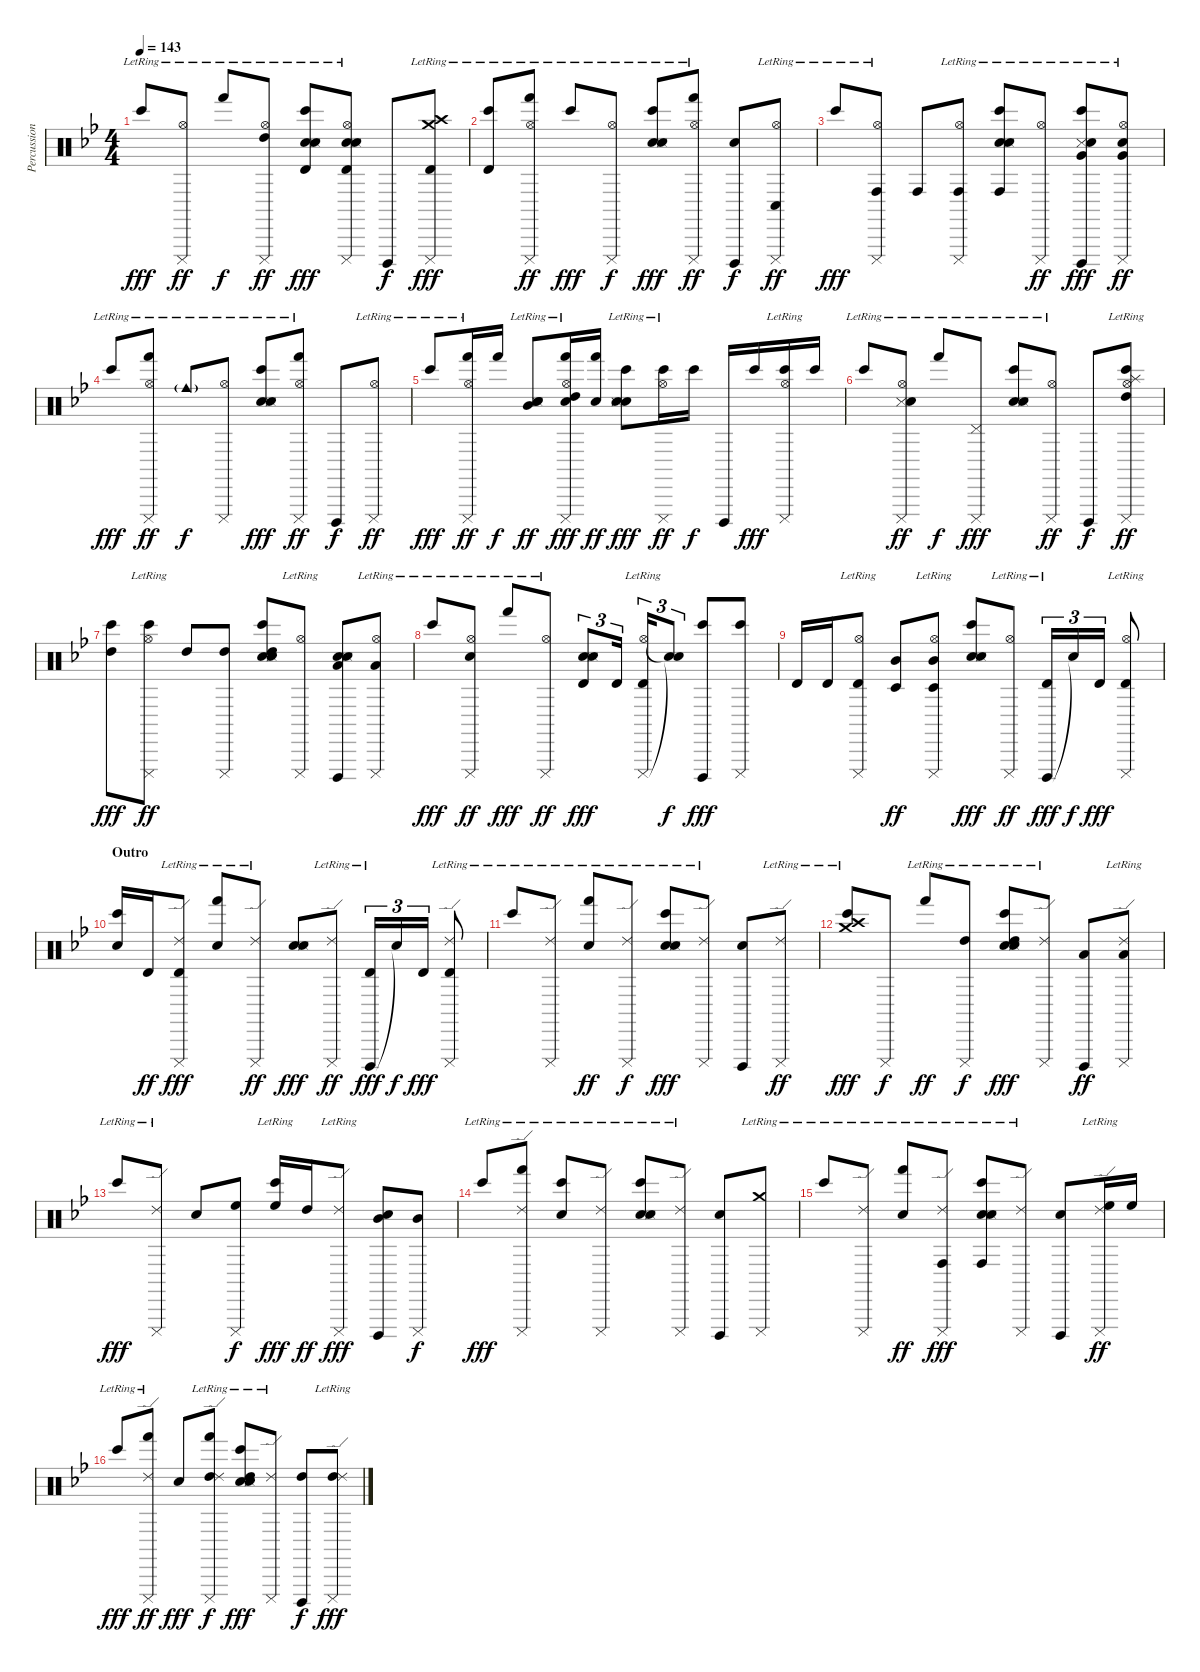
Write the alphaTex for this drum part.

\track ("Percussion" "Percussion") {instrument percussion}
\staff {score}
\articulation defaults
\ts (4 4)
\tempo 143
\clef neutral
\ks gminor "Bongo High (hit)"{lr}.8{dy fff}
("Cuica (mute)" "Hi-Hat (open)"{lr}).8{dy ff} "Hand (hit)"{lr}.8{dy f} ("Cuica (mute)" "High Tom (hit)" "Hi-Hat (open)"{lr}).8{dy ff} ("Snare (hit) 2" "Snare (side stick) 3" "Snare (hit) 2" "Timbale high (hit)" "Bongo High (hit)"{lr}).8{dy fff} ("Cuica (mute)" "Snare (hit) 2" "Snare (side stick) 3" "Hi-Hat (open)"{lr} "Snare (hit) 2" "Timbale high (hit)").8 "Cuica (open)".8{dy f} ("Cuica (mute)" "Crash high (hit)"{lr} "Timbale high (hit)" "Crash medium (hit)"{lr}).8{dy fff} |
("Timbale high (hit)" "Bongo High (hit)"{lr}).8 ("Cuica (mute)" "Hi-Hat (open)"{lr} "Hand (hit)").8{dy ff} "Bongo High (hit)"{lr}.8{dy fff} ("Cuica (mute)" "Hi-Hat (open)"{lr}).8{dy f} ("Snare (hit) 2" "Snare (side stick) 3" "Snare (hit) 2" "Bongo High (hit)"{lr}).8{dy fff} ("Cuica (mute)" "Hi-Hat (open)"{lr} "Hand (hit)").8{dy ff} ("Cuica (open)" "Snare (hit) 2").8{dy f} ("Cuica (mute)" "Conga low (hit)" "Hi-Hat (open)"{lr}).8{dy ff} |
"Bongo High (hit)"{lr}.8{dy fff} ("Cuica (mute)" "Hi-Hat (open)"{lr} "Conga high (hit)").8 "Conga high (hit)".8 ("Cuica (mute)" "Hi-Hat (open)"{lr} "Conga high (hit)").8 ("Snare (hit) 2" "Snare (side stick) 3" "Snare (hit) 2" "Bongo High (hit)"{lr} "Conga high (hit)").8 ("Cuica (mute)" "Hi-Hat (open)"{lr}).8{dy ff} ("Cuica (open)" "Snare (side stick) 3" "Snare (hit) 2" "Bongo High (hit)"{lr} "Very Low Tom (hit)").8{dy fff} ("Cuica (mute)" "Snare (hit) 2" "Hi-Hat (open)"{lr} "Very Low Tom (hit)").8{dy ff} |
"Bongo High (hit)"{lr}.8{dy fff} ("Cuica (mute)" "Hi-Hat (open)"{lr} "Hand (hit)").8{dy ff} "Cowbell medium (hit)"{g lr}.8{dy f} ("Cuica (mute)" "Hi-Hat (open)"{lr}).8 ("Snare (hit) 2" "Snare (side stick) 3" "Snare (hit) 2" "Bongo High (hit)"{lr}).8{dy fff} ("Cuica (mute)" "Hi-Hat (open)"{lr} "Hand (hit)").8{dy ff} "Cuica (open)".8{dy f} ("Cuica (mute)" "Hi-Hat (open)"{lr}).8{dy ff} |
"Bongo High (hit)"{lr}.8{dy fff} ("Cuica (mute)" "Hi-Hat (open)"{lr} "Hand (hit)").16{dy ff} "Hand (hit)".16{dy f} ("Snare (hit) 2" "Snare (side stick) 3" "Snare (hit) 2" "Mid Tom (hit)"{lr}).8{dy ff} ("Cuica (mute)" "Snare (hit) 2" "High Tom (hit)" "Hi-Hat (open)"{lr} "Hand (hit)").16{dy fff} ("Snare (hit) 2" "Hand (hit)").16{dy ff} ("Snare (hit) 2" "Snare (side stick) 3" "Snare (hit) 2" "Bongo High (hit)"{lr}).8{dy fff} ("Cuica (mute)" "Hi-Hat (open)"{lr} "Bongo High (hit)").16{dy ff} "Bongo High (hit)".16{dy f} "Cuica (open)".16 "Bongo High (hit)".16{dy fff} ("Cuica (mute)" "Hi-Hat (open)"{lr} "Bongo High (hit)").16 "Bongo High (hit)".16 |
"Bongo High (hit)"{lr}.8 ("Cuica (mute)" "Snare (side stick) 3" "Snare (hit) 2" "Hi-Hat (open)"{lr}).8{dy ff} "Hand (hit)"{lr}.8{dy f} ("Cuica (mute)" "Pedal Hi-Hat (hit)"{lr}).8{dy fff} ("Snare (hit) 2" "Snare (side stick) 3" "Snare (hit) 2" "Bongo High (hit)"{lr}).8 ("Cuica (mute)" "Hi-Hat (open)"{lr}).8{dy ff} "Cuica (open)".8{dy f} ("Cuica (mute)" "High Tom (hit)" "Splash (hit)"{lr} "Hi-Hat (open)"{lr} "Bongo High (hit)").8{dy ff} |
("High Tom (hit)" "Bongo High (hit)").8{dy fff} ("Cuica (mute)" "Hi-Hat (open)"{lr} "Bongo High (hit)").8{dy ff} "High Tom (hit)".8 ("Cuica (mute)" "High Tom (hit)").8 ("Snare (hit) 2" "Snare (side stick) 3" "Snare (hit) 2" "Bongo High (hit)" "High Tom (hit)").8 ("Cuica (mute)" "Hi-Hat (open)"{lr}).8 ("Cuica (open)" "Snare (hit) 2" "Snare (side stick) 3" "Snare (hit) 2" "Low Tom (hit)").8 ("Cuica (mute)" "Hi-Hat (open)"{lr} "Low Tom (hit)").8 |
"Bongo High (hit)"{lr}.8{dy fff} ("Cuica (mute)" "Snare (hit) 2" "Hi-Hat (open)"{lr}).8{dy ff} "Hand (hit)"{lr}.8{dy fff} ("Cuica (mute)" "Hi-Hat (open)"{lr}).8{dy ff} ("Snare (hit) 2" "Snare (side stick) 3" "Snare (hit) 2" "Timbale high (hit)").8{tu (3 2) dy fff} "Timbale high (hit)".16{tu (3 2)} ("Cuica (mute)" "Hi-Hat (open)"{lr} "Timbale high (hit)"{lr}).16{tu (3 2)} ("Snare (hit)"{t} "Snare (hit)"{t}).8{tu (3 2) dy f} ("Cuica (open)" "Bongo High (hit)").8{dy fff} ("Cuica (mute)" "Bongo High (hit)").8 |
"Timbale high (hit)".16 "Timbale high (hit)".16 ("Cuica (mute)" "Hi-Hat (open)"{lr} "Timbale high (hit)").8 ("Timbale low (hit)" "Mid Tom (hit)").8{dy ff} ("Cuica (mute)" "Hi-Hat (open)"{lr} "Timbale low (hit)" "Mid Tom (hit)").8 ("Snare (hit) 2" "Snare (side stick) 3" "Snare (hit) 2" "Bongo High (hit)").8{dy fff} ("Cuica (mute)" "Hi-Hat (open)"{lr}).8{dy ff} ("Cuica (open)" "Timbale high (hit)"{lr}).16{tu (3 2) dy fff} "Snare (hit)"{t}.16{tu (3 2) dy f} "Timbale high (hit)".16{tu (3 2) dy fff} ("Cuica (mute)" "Hi-Hat (open)"{lr} "Timbale high (hit)"{lr}).8 |
\section ("" "Outro")
("Snare (hit) 2" "Bongo High (hit)").16 "Timbale high (hit)".16{dy ff} ("Cuica (mute)" "Ride (edge) 2"{lr} "Timbale high (hit)").8{dy fff} ("Snare (hit) 2" "Hand (hit)"{lr}).8 ("Cuica (mute)" "Ride (edge) 2"{lr}).8{dy ff} ("Snare (hit) 2" "Snare (side stick) 3" "Snare (hit) 2").8{dy fff} ("Cuica (mute)" "Ride (edge) 2"{lr}).8{dy ff} ("Cuica (open)" "Timbale high (hit)"{lr}).16{tu (3 2) dy fff} "Snare (hit)"{t}.16{tu (3 2) dy f} "Timbale high (hit)".16{tu (3 2) dy fff} ("Cuica (mute)" "Ride (edge) 2"{lr} "Timbale high (hit)"{lr}).8 |
"Bongo High (hit)"{lr}.8 ("Cuica (mute)" "Ride (edge) 2"{lr}).8 ("Snare (hit) 2" "Hand (hit)"{lr}).8{dy ff} ("Cuica (mute)" "Ride (edge) 2"{lr}).8{dy f} ("Snare (hit) 2" "Snare (side stick) 3" "Snare (hit) 2" "Bongo High (hit)"{lr}).8{dy fff} ("Cuica (mute)" "Ride (edge) 2"{lr}).8 ("Cuica (open)" "Snare (hit) 2").8 ("Cuica (mute)" "Ride (edge) 2"{lr}).8{dy ff} |
("Crash high (hit)"{lr} "Crash medium (hit)"{lr} "Bongo High (hit)"{lr}).8{dy fff} "Cuica (mute)".8{dy f} "Hand (hit)"{lr}.8{dy ff} ("Cuica (mute)" "High Tom (hit)"{lr}).8{dy f} ("Snare (hit) 2" "Snare (side stick) 3" "Snare (hit) 2" "High Tom (hit)" "Bongo High (hit)"{lr}).8{dy fff} ("Cuica (mute)" "Ride (edge) 2"{lr}).8 ("Cuica (open)" "Low Tom (hit)").8{dy ff} ("Cuica (mute)" "Low Tom (hit)"{lr} "Ride (edge) 2"{lr}).8 |
"Bongo High (hit)"{lr}.8{dy fff} ("Cuica (mute)" "Ride (edge) 2"{lr}).8 "Snare (hit) 2".8 ("Cuica (mute)" "High Floor Tom (hit)").8{dy f} ("High Floor Tom (hit)" "Bongo High (hit)"{lr}).16{dy fff} "High Tom (hit)".16{dy ff} ("Cuica (mute)" "Ride (edge) 2"{lr}).8{dy fff} ("Cuica (open)" "Mid Tom (hit)" "Snare (hit) 2").8 ("Cuica (mute)" "Mid Tom (hit)").8{dy f} |
"Bongo High (hit)"{lr}.8{dy fff} ("Cuica (mute)" "Ride (edge) 2"{lr} "Hand (hit)").8 ("Snare (hit) 2" "Bongo High (hit)"{lr}).8 ("Cuica (mute)" "Ride (edge) 2"{lr}).8 ("Snare (hit) 2" "Snare (side stick) 3" "Snare (hit) 2" "Bongo High (hit)"{lr}).8 ("Cuica (mute)" "Ride (edge) 2"{lr}).8 ("Cuica (open)" "Snare (hit) 2").8 ("Cuica (mute)" "Crash medium (hit)"{lr}).8 |
"Bongo High (hit)"{lr}.8 ("Cuica (mute)" "Ride (edge) 2"{lr}).8 ("Snare (hit) 2" "Hand (hit)"{lr}).8{dy ff} ("Cuica (mute)" "Ride (edge) 2"{lr} "Conga high (hit)").8{dy fff} ("Snare (hit) 2" "Snare (side stick) 3" "Snare (hit) 2" "Bongo High (hit)"{lr} "Conga high (hit)"{lr}).8 ("Cuica (mute)" "Ride (edge) 2"{lr}).8 ("Cuica (open)" "Snare (hit) 2").8 ("Cuica (mute)" "High Floor Tom (hit)" "Ride (edge) 2"{lr}).16{dy ff} "High Floor Tom (hit)".16 |
"Bongo High (hit)"{lr}.8{dy fff} ("Cuica (mute)" "Ride (edge) 2"{lr} "Hand (hit)"{lr}).8{dy ff} "Snare (hit) 2".8{dy fff} ("Cuica (mute)" "High Tom (hit)" "Ride (edge) 2"{lr} "Hand (hit)").8{dy f} ("Snare (hit) 2" "Snare (side stick) 3" "Snare (hit) 2" "High Tom (hit)" "Bongo High (hit)"{lr}).8{dy fff} ("Cuica (mute)" "Ride (edge) 2"{lr}).8 ("Cuica (open)" "High Tom (hit)").8{dy f} ("Cuica (mute)" "High Tom (hit)" "Ride (edge) 2"{lr}).8{dy fff}
